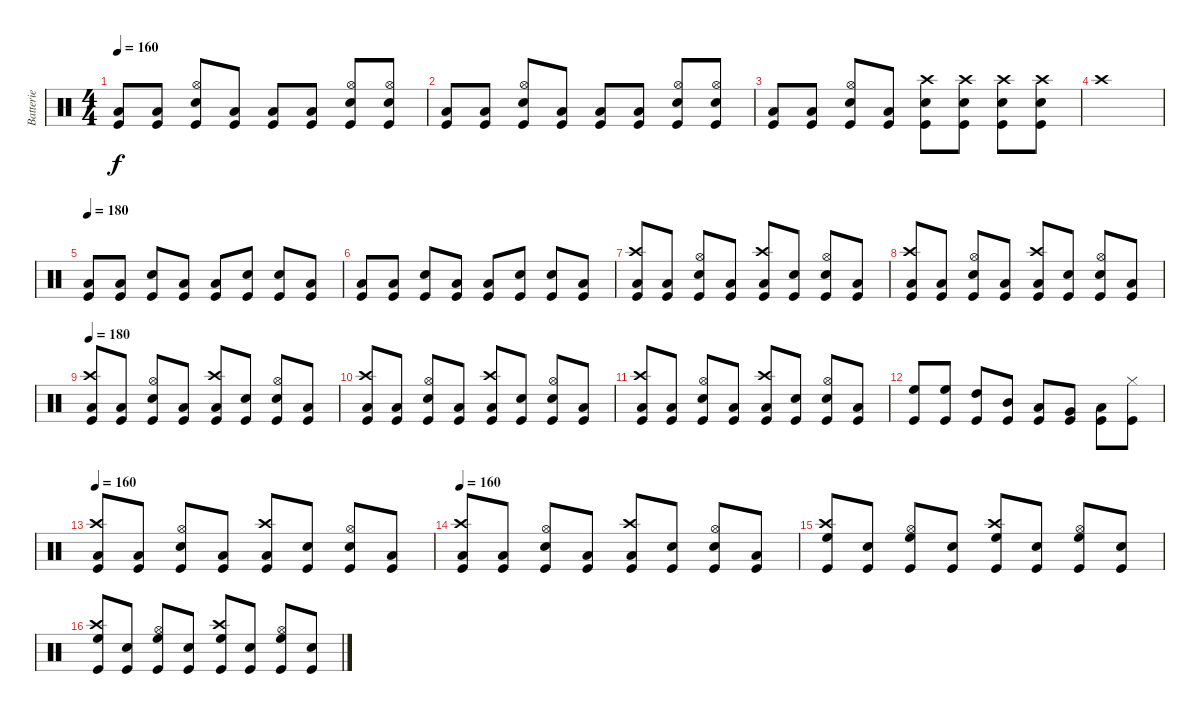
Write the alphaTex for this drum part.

\track ("Batterie" "Batterie") {instrument percussion}
\staff {score}
\articulation defaults
\ts (4 4)
\tempo 160
\clef neutral
\ks c
("Low Floor Tom (hit)" "Kick (hit)").8{dy f} ("Low Floor Tom (hit)" "Kick (hit)").8 ("Hi-Hat (open)" "Snare (hit) 2" "Kick (hit)").8 ("Low Floor Tom (hit)" "Kick (hit)").8 ("Low Floor Tom (hit)" "Kick (hit)").8 ("Low Floor Tom (hit)" "Kick (hit)").8 ("Hi-Hat (open)" "Snare (hit) 2" "Kick (hit)").8 ("Hi-Hat (open)" "Snare (hit) 2" "Kick (hit)").8 |
("Low Floor Tom (hit)" "Kick (hit)").8 ("Low Floor Tom (hit)" "Kick (hit)").8 ("Hi-Hat (open)" "Snare (hit) 2" "Kick (hit)").8 ("Low Floor Tom (hit)" "Kick (hit)").8 ("Low Floor Tom (hit)" "Kick (hit)").8 ("Low Floor Tom (hit)" "Kick (hit)").8 ("Hi-Hat (open)" "Snare (hit) 2" "Kick (hit)").8 ("Hi-Hat (open)" "Snare (hit) 2" "Kick (hit)").8 |
("Low Floor Tom (hit)" "Kick (hit)").8 ("Low Floor Tom (hit)" "Kick (hit)").8 ("Hi-Hat (open)" "Snare (hit) 2" "Kick (hit)").8 ("Low Floor Tom (hit)" "Kick (hit)").8 ("Snare (hit) 2" "Kick (hit)" "Crash high (hit)").8 ("Snare (hit) 2" "Kick (hit)" "Crash high (hit)").8 ("Snare (hit) 2" "Kick (hit)" "Crash high (hit)").8 ("Snare (hit) 2" "Kick (hit)" "Crash high (hit)").8 |
"Crash high (hit)".1 |
\tempo 180
("Kick (hit)" "Low Tom (hit)").8 ("Kick (hit)" "Low Tom (hit)").8 ("Kick (hit)" "Snare (hit) 2").8 ("Kick (hit)" "Low Tom (hit)").8 ("Kick (hit)" "Low Tom (hit)").8 ("Kick (hit)" "Snare (hit) 2").8 ("Kick (hit)" "Snare (hit) 2").8 ("Low Floor Tom (hit)" "Kick (hit)").8 |
("Kick (hit)" "Low Tom (hit)").8 ("Kick (hit)" "Low Tom (hit)").8 ("Kick (hit)" "Snare (hit) 2").8 ("Kick (hit)" "Low Tom (hit)").8 ("Kick (hit)" "Low Tom (hit)").8 ("Kick (hit)" "Snare (hit) 2").8 ("Kick (hit)" "Snare (hit) 2").8 ("Low Floor Tom (hit)" "Kick (hit)").8 |
("Kick (hit)" "Low Tom (hit)" "Crash high (hit)").8 ("Kick (hit)" "Low Tom (hit)").8 ("Kick (hit)" "Snare (hit) 2" "Hi-Hat (open)").8 ("Kick (hit)" "Low Tom (hit)").8 ("Kick (hit)" "Low Tom (hit)" "Crash high (hit)").8 ("Kick (hit)" "Snare (hit) 2").8 ("Kick (hit)" "Snare (hit) 2" "Hi-Hat (open)").8 ("Low Floor Tom (hit)" "Kick (hit)").8 |
("Kick (hit)" "Low Tom (hit)" "Crash high (hit)").8 ("Kick (hit)" "Low Tom (hit)").8 ("Kick (hit)" "Snare (hit) 2" "Hi-Hat (open)").8 ("Kick (hit)" "Low Tom (hit)").8 ("Kick (hit)" "Low Tom (hit)" "Crash high (hit)").8 ("Kick (hit)" "Snare (hit) 2").8 ("Kick (hit)" "Snare (hit) 2" "Hi-Hat (open)").8 ("Low Floor Tom (hit)" "Kick (hit)").8 |
\tempo 180
("Kick (hit)" "Low Tom (hit)" "Crash high (hit)").8 ("Kick (hit)" "Low Tom (hit)").8 ("Kick (hit)" "Snare (hit) 2" "Hi-Hat (open)").8 ("Kick (hit)" "Low Tom (hit)").8 ("Kick (hit)" "Low Tom (hit)" "Crash high (hit)").8 ("Kick (hit)" "Snare (hit) 2").8 ("Kick (hit)" "Snare (hit) 2" "Hi-Hat (open)").8 ("Low Floor Tom (hit)" "Kick (hit)").8 |
("Kick (hit)" "Low Tom (hit)" "Crash high (hit)").8 ("Kick (hit)" "Low Tom (hit)").8 ("Kick (hit)" "Snare (hit) 2" "Hi-Hat (open)").8 ("Kick (hit)" "Low Tom (hit)").8 ("Kick (hit)" "Low Tom (hit)" "Crash high (hit)").8 ("Kick (hit)" "Snare (hit) 2").8 ("Kick (hit)" "Snare (hit) 2" "Hi-Hat (open)").8 ("Low Floor Tom (hit)" "Kick (hit)").8 |
("Kick (hit)" "Low Tom (hit)" "Crash high (hit)").8 ("Kick (hit)" "Low Tom (hit)").8 ("Kick (hit)" "Snare (hit) 2" "Hi-Hat (open)").8 ("Kick (hit)" "Low Tom (hit)").8 ("Kick (hit)" "Low Tom (hit)" "Crash high (hit)").8 ("Kick (hit)" "Snare (hit) 2").8 ("Kick (hit)" "Snare (hit) 2" "Hi-Hat (open)").8 ("Low Floor Tom (hit)" "Kick (hit)").8 |
("Kick (hit)" "High Floor Tom (hit)").8 ("Kick (hit)" "High Floor Tom (hit)").8 ("Kick (hit)" "High Tom (hit)").8 ("Kick (hit)" "Mid Tom (hit)").8 ("Kick (hit)" "Low Tom (hit)").8 ("Kick (hit)" "Very Low Tom (hit)").8 ("Kick (hit)" "Low Floor Tom (hit)").8 ("Kick (hit)" "Hi-Hat (closed)").8 |
\tempo 160
("Kick (hit)" "Low Tom (hit)" "Crash high (hit)").8 ("Kick (hit)" "Low Tom (hit)").8 ("Kick (hit)" "Snare (hit) 2" "Hi-Hat (open)").8 ("Kick (hit)" "Low Tom (hit)").8 ("Kick (hit)" "Low Tom (hit)" "Crash high (hit)").8 ("Kick (hit)" "Snare (hit) 2").8 ("Kick (hit)" "Snare (hit) 2" "Hi-Hat (open)").8 ("Low Floor Tom (hit)" "Kick (hit)").8 |
\tempo 160
("Kick (hit)" "Low Tom (hit)" "Crash high (hit)").8 ("Kick (hit)" "Low Tom (hit)").8 ("Kick (hit)" "Snare (hit) 2" "Hi-Hat (open)").8 ("Kick (hit)" "Low Tom (hit)").8 ("Kick (hit)" "Low Tom (hit)" "Crash high (hit)").8 ("Kick (hit)" "Snare (hit) 2").8 ("Kick (hit)" "Snare (hit) 2" "Hi-Hat (open)").8 ("Low Floor Tom (hit)" "Kick (hit)").8 |
("Kick (hit)" "High Floor Tom (hit)" "Crash high (hit)").8 ("Kick (hit)" "Snare (hit) 2").8 ("Kick (hit)" "High Floor Tom (hit)" "Hi-Hat (open)").8 ("Kick (hit)" "Snare (hit) 2").8 ("Kick (hit)" "High Floor Tom (hit)" "Crash high (hit)").8 ("Kick (hit)" "Snare (hit) 2").8 ("Kick (hit)" "High Floor Tom (hit)" "Hi-Hat (open)").8 ("Kick (hit)" "Snare (hit) 2").8 |
("Kick (hit)" "High Floor Tom (hit)" "Crash high (hit)").8 ("Kick (hit)" "Snare (hit) 2").8 ("Kick (hit)" "High Floor Tom (hit)" "Hi-Hat (open)").8 ("Kick (hit)" "Snare (hit) 2").8 ("Kick (hit)" "High Floor Tom (hit)" "Crash high (hit)").8 ("Kick (hit)" "Snare (hit) 2").8 ("Kick (hit)" "High Floor Tom (hit)" "Hi-Hat (open)").8 ("Kick (hit)" "Snare (hit) 2").8
